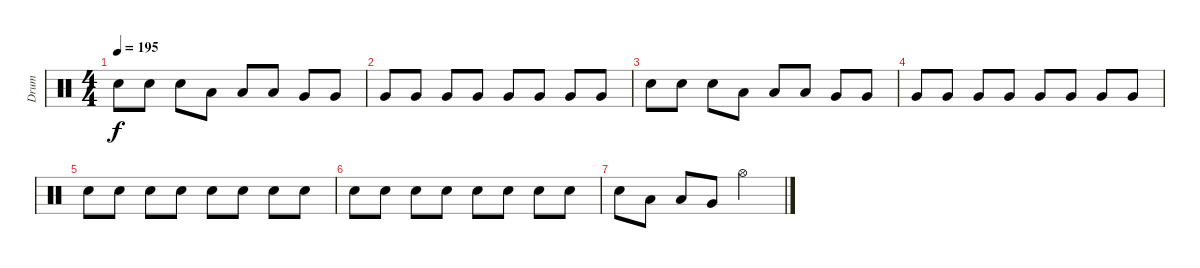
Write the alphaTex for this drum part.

\track ("Drum" "Drum") {instrument percussion}
\staff {score}
\articulation defaults
\ts (4 4)
\tempo 195
\clef neutral
\ks c "Electric Snare (hit)".8{dy f} "Electric Snare (hit)".8 "Electric Snare (hit)".8 "Low Floor Tom (hit)".8 "Low Floor Tom (hit)".8 "Low Floor Tom (hit)".8 "Very Low Tom (hit)".8 "Very Low Tom (hit)".8
|
"Very Low Tom (hit)".8 "Very Low Tom (hit)".8 "Very Low Tom (hit)".8 "Very Low Tom (hit)".8 "Very Low Tom (hit)".8 "Very Low Tom (hit)".8 "Very Low Tom (hit)".8 "Very Low Tom (hit)".8 |
"Electric Snare (hit)".8 "Electric Snare (hit)".8 "Electric Snare (hit)".8 "Low Floor Tom (hit)".8 "Low Floor Tom (hit)".8 "Low Floor Tom (hit)".8 "Very Low Tom (hit)".8 "Very Low Tom (hit)".8 |
"Very Low Tom (hit)".8 "Very Low Tom (hit)".8 "Very Low Tom (hit)".8 "Very Low Tom (hit)".8 "Very Low Tom (hit)".8 "Very Low Tom (hit)".8 "Very Low Tom (hit)".8 "Very Low Tom (hit)".8 |
"Electric Snare (hit)".8 "Electric Snare (hit)".8 "Snare (hit) 2".8 "Snare (hit) 2".8 "Electric Snare (hit)".8 "Electric Snare (hit)".8 "Snare (hit) 2".8 "Snare (hit) 2".8 |
"Electric Snare (hit)".8 "Electric Snare (hit)".8 "Snare (hit) 2".8 "Snare (hit) 2".8 "Electric Snare (hit)".8 "Electric Snare (hit)".8 "Snare (hit) 2".8 "Snare (hit) 2".8 |
"Electric Snare (hit)".8 "Low Tom (hit)".8 "Low Floor Tom (hit)".8 "Very Low Tom (hit)".8 "Hi-Hat (open)".2
